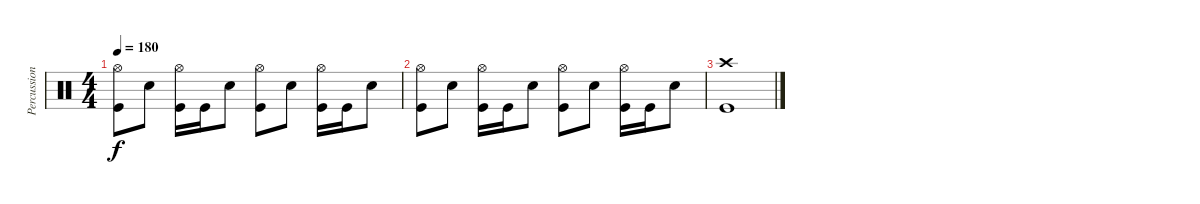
\track ("Percussion" "Percussion") {instrument percussion}
\staff {score}
\articulation defaults
\ts (4 4)
\tempo 180
\clef neutral
\ks c
("Hi-Hat (open)" "Kick (hit)").8{dy f} "Snare (hit) 2".8 ("Hi-Hat (open)" "Kick (hit)").16 "Kick (hit)".16 "Snare (hit) 2".8 ("Hi-Hat (open)" "Kick (hit)").8 "Snare (hit) 2".8 ("Hi-Hat (open)" "Kick (hit)").16 "Kick (hit)".16 "Snare (hit) 2".8 |
("Hi-Hat (open)" "Kick (hit)").8 "Snare (hit) 2".8 ("Hi-Hat (open)" "Kick (hit)").16 "Kick (hit)".16 "Snare (hit) 2".8 ("Hi-Hat (open)" "Kick (hit)").8 "Snare (hit) 2".8 ("Hi-Hat (open)" "Kick (hit)").16 "Kick (hit)".16 "Snare (hit) 2".8 |
("Crash high (hit)" "Kick (hit)").1
